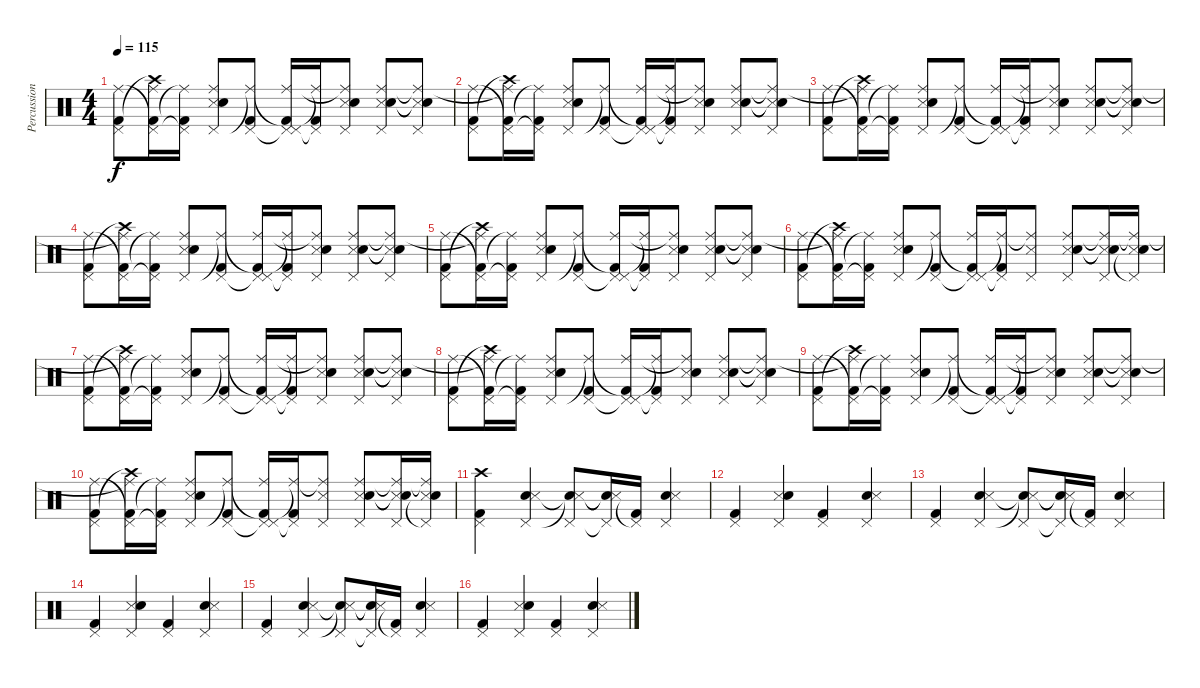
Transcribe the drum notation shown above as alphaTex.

\track ("Percussioni" "Percussion") {instrument percussion}
\staff {score}
\articulation defaults
\ts (4 4)
\tempo 115
\clef neutral
\ks c
("Pedal Hi-Hat (hit)" "Kick (hit) 2" "Ride (middle)").8{dy f} ("Pedal Hi-Hat (hit)" "Crash high (hit)"{t} "Kick (hit) 2"{t} "Ride (middle)"{t}).16 ("Pedal Hi-Hat (hit)"{t} "Kick (hit) 2" "Ride (middle)"{t}).16 ("Snare (side stick) 3" "Electric Snare (hit)" "Pedal Hi-Hat (hit)" "Ride (middle)").8 ("Pedal Hi-Hat (hit)" "Kick (hit) 2" "Ride (middle)"{t}).8 ("Pedal Hi-Hat (hit)"{t} "Pedal Hi-Hat (hit)" "Kick (hit) 2"{t} "Ride (middle)").16 ("Pedal Hi-Hat (hit)"{t} "Kick (hit) 2" "Ride (middle)"{t}).16 ("Snare (side stick) 3" "Pedal Hi-Hat (hit)" "Electric Snare (hit)" "Ride (middle)"{t}).8 ("Snare (side stick) 3" "Electric Snare (hit)" "Pedal Hi-Hat (hit)" "Ride (middle)").8 ("Snare (side stick) 3"{t} "Electric Snare (hit)"{t} "Pedal Hi-Hat (hit)" "Ride (middle)"{t}).8 |
("Pedal Hi-Hat (hit)" "Kick (hit) 2" "Ride (middle)").8 ("Pedal Hi-Hat (hit)" "Crash high (hit)"{t} "Kick (hit) 2"{t} "Ride (middle)"{t}).16 ("Pedal Hi-Hat (hit)"{t} "Kick (hit) 2" "Ride (middle)"{t}).16 ("Snare (side stick) 3" "Electric Snare (hit)" "Pedal Hi-Hat (hit)" "Ride (middle)").8 ("Pedal Hi-Hat (hit)" "Kick (hit) 2" "Ride (middle)"{t}).8 ("Pedal Hi-Hat (hit)"{t} "Pedal Hi-Hat (hit)" "Kick (hit) 2"{t} "Ride (middle)").16 ("Pedal Hi-Hat (hit)"{t} "Kick (hit) 2" "Ride (middle)"{t}).16 ("Snare (side stick) 3" "Pedal Hi-Hat (hit)" "Electric Snare (hit)" "Ride (middle)"{t}).8 ("Snare (side stick) 3" "Electric Snare (hit)" "Pedal Hi-Hat (hit)" "Ride (middle)").8 ("Snare (side stick) 3"{t} "Electric Snare (hit)"{t} "Pedal Hi-Hat (hit)" "Ride (middle)"{t}).8 |
("Pedal Hi-Hat (hit)" "Kick (hit) 2" "Ride (middle)").8 ("Pedal Hi-Hat (hit)" "Crash high (hit)"{t} "Kick (hit) 2"{t} "Ride (middle)"{t}).16 ("Pedal Hi-Hat (hit)"{t} "Kick (hit) 2" "Ride (middle)"{t}).16 ("Snare (side stick) 3" "Electric Snare (hit)" "Pedal Hi-Hat (hit)" "Ride (middle)").8 ("Pedal Hi-Hat (hit)" "Kick (hit) 2" "Ride (middle)"{t}).8 ("Pedal Hi-Hat (hit)"{t} "Pedal Hi-Hat (hit)" "Kick (hit) 2"{t} "Ride (middle)").16 ("Pedal Hi-Hat (hit)"{t} "Kick (hit) 2" "Ride (middle)"{t}).16 ("Snare (side stick) 3" "Pedal Hi-Hat (hit)" "Electric Snare (hit)" "Ride (middle)"{t}).8 ("Snare (side stick) 3" "Electric Snare (hit)" "Pedal Hi-Hat (hit)" "Ride (middle)").8 ("Snare (side stick) 3"{t} "Electric Snare (hit)"{t} "Pedal Hi-Hat (hit)" "Ride (middle)"{t}).8 |
("Pedal Hi-Hat (hit)" "Kick (hit) 2" "Ride (middle)").8 ("Pedal Hi-Hat (hit)" "Crash high (hit)"{t} "Kick (hit) 2"{t} "Ride (middle)"{t}).16 ("Pedal Hi-Hat (hit)"{t} "Kick (hit) 2" "Ride (middle)"{t}).16 ("Snare (side stick) 3" "Electric Snare (hit)" "Pedal Hi-Hat (hit)" "Ride (middle)").8 ("Pedal Hi-Hat (hit)" "Kick (hit) 2" "Ride (middle)"{t}).8 ("Pedal Hi-Hat (hit)"{t} "Pedal Hi-Hat (hit)" "Kick (hit) 2"{t} "Ride (middle)").16 ("Pedal Hi-Hat (hit)"{t} "Kick (hit) 2" "Ride (middle)"{t}).16 ("Snare (side stick) 3" "Pedal Hi-Hat (hit)" "Electric Snare (hit)" "Ride (middle)"{t}).8 ("Snare (side stick) 3" "Electric Snare (hit)" "Pedal Hi-Hat (hit)" "Ride (middle)").8 ("Snare (side stick) 3"{t} "Electric Snare (hit)"{t} "Pedal Hi-Hat (hit)" "Ride (middle)"{t}).8 |
("Pedal Hi-Hat (hit)" "Kick (hit) 2" "Ride (middle)").8 ("Pedal Hi-Hat (hit)" "Crash high (hit)"{t} "Kick (hit) 2"{t} "Ride (middle)"{t}).16 ("Pedal Hi-Hat (hit)"{t} "Kick (hit) 2" "Ride (middle)"{t}).16 ("Snare (side stick) 3" "Electric Snare (hit)" "Pedal Hi-Hat (hit)" "Ride (middle)").8 ("Pedal Hi-Hat (hit)" "Kick (hit) 2" "Ride (middle)"{t}).8 ("Pedal Hi-Hat (hit)"{t} "Pedal Hi-Hat (hit)" "Kick (hit) 2"{t} "Ride (middle)").16 ("Pedal Hi-Hat (hit)"{t} "Kick (hit) 2" "Ride (middle)"{t}).16 ("Snare (side stick) 3" "Pedal Hi-Hat (hit)" "Electric Snare (hit)" "Ride (middle)"{t}).8 ("Snare (side stick) 3" "Electric Snare (hit)" "Pedal Hi-Hat (hit)" "Ride (middle)").8 ("Snare (side stick) 3"{t} "Electric Snare (hit)"{t} "Pedal Hi-Hat (hit)" "Ride (middle)"{t}).8 |
("Pedal Hi-Hat (hit)" "Kick (hit) 2" "Ride (middle)").8 ("Pedal Hi-Hat (hit)" "Crash high (hit)"{t} "Kick (hit) 2"{t} "Ride (middle)"{t}).16 ("Pedal Hi-Hat (hit)"{t} "Kick (hit) 2" "Ride (middle)"{t}).16 ("Snare (side stick) 3" "Electric Snare (hit)" "Pedal Hi-Hat (hit)" "Ride (middle)").8 ("Pedal Hi-Hat (hit)" "Kick (hit) 2" "Ride (middle)"{t}).8 ("Pedal Hi-Hat (hit)"{t} "Pedal Hi-Hat (hit)" "Kick (hit) 2"{t} "Ride (middle)").16 ("Pedal Hi-Hat (hit)"{t} "Kick (hit) 2" "Ride (middle)"{t}).16 ("Snare (side stick) 3" "Pedal Hi-Hat (hit)" "Ride (middle)"{t}).8 ("Snare (side stick) 3" "Electric Snare (hit)" "Pedal Hi-Hat (hit)" "Ride (middle)").8 ("Snare (side stick) 3"{t} "Electric Snare (hit)"{t} "Pedal Hi-Hat (hit)" "Ride (middle)"{t}).16 ("Pedal Hi-Hat (hit)"{t} "Snare (side stick) 3" "Electric Snare (hit)" "Ride (middle)"{t}).16 |
("Pedal Hi-Hat (hit)" "Kick (hit) 2" "Ride (middle)").8 ("Pedal Hi-Hat (hit)" "Crash high (hit)"{t} "Kick (hit) 2"{t} "Ride (middle)"{t}).16 ("Pedal Hi-Hat (hit)"{t} "Kick (hit) 2" "Ride (middle)"{t}).16 ("Snare (side stick) 3" "Electric Snare (hit)" "Pedal Hi-Hat (hit)" "Ride (middle)").8 ("Pedal Hi-Hat (hit)" "Kick (hit) 2" "Ride (middle)"{t}).8 ("Pedal Hi-Hat (hit)"{t} "Pedal Hi-Hat (hit)" "Kick (hit) 2"{t} "Ride (middle)").16 ("Pedal Hi-Hat (hit)"{t} "Kick (hit) 2" "Ride (middle)"{t}).16 ("Snare (side stick) 3" "Pedal Hi-Hat (hit)" "Electric Snare (hit)" "Ride (middle)"{t}).8 ("Snare (side stick) 3" "Electric Snare (hit)" "Pedal Hi-Hat (hit)" "Ride (middle)").8 ("Snare (side stick) 3"{t} "Electric Snare (hit)"{t} "Pedal Hi-Hat (hit)" "Ride (middle)"{t}).8 |
("Pedal Hi-Hat (hit)" "Kick (hit) 2" "Ride (middle)").8 ("Pedal Hi-Hat (hit)" "Crash high (hit)"{t} "Kick (hit) 2"{t} "Ride (middle)"{t}).16 ("Pedal Hi-Hat (hit)"{t} "Kick (hit) 2" "Ride (middle)"{t}).16 ("Snare (side stick) 3" "Electric Snare (hit)" "Pedal Hi-Hat (hit)" "Ride (middle)").8 ("Pedal Hi-Hat (hit)" "Kick (hit) 2" "Ride (middle)"{t}).8 ("Pedal Hi-Hat (hit)"{t} "Pedal Hi-Hat (hit)" "Kick (hit) 2"{t} "Ride (middle)").16 ("Pedal Hi-Hat (hit)"{t} "Kick (hit) 2" "Ride (middle)"{t}).16 ("Snare (side stick) 3" "Pedal Hi-Hat (hit)" "Electric Snare (hit)" "Ride (middle)"{t}).8 ("Snare (side stick) 3" "Electric Snare (hit)" "Pedal Hi-Hat (hit)" "Ride (middle)").8 ("Snare (side stick) 3"{t} "Electric Snare (hit)"{t} "Pedal Hi-Hat (hit)" "Ride (middle)"{t}).8 |
("Pedal Hi-Hat (hit)" "Kick (hit) 2" "Ride (middle)").8 ("Pedal Hi-Hat (hit)" "Crash high (hit)"{t} "Kick (hit) 2"{t} "Ride (middle)"{t}).16 ("Pedal Hi-Hat (hit)"{t} "Kick (hit) 2" "Ride (middle)"{t}).16 ("Snare (side stick) 3" "Electric Snare (hit)" "Pedal Hi-Hat (hit)" "Ride (middle)").8 ("Pedal Hi-Hat (hit)" "Kick (hit) 2" "Ride (middle)"{t}).8 ("Pedal Hi-Hat (hit)"{t} "Pedal Hi-Hat (hit)" "Kick (hit) 2"{t} "Ride (middle)").16 ("Pedal Hi-Hat (hit)"{t} "Kick (hit) 2" "Ride (middle)"{t}).16 ("Snare (side stick) 3" "Pedal Hi-Hat (hit)" "Electric Snare (hit)" "Ride (middle)"{t}).8 ("Snare (side stick) 3" "Electric Snare (hit)" "Pedal Hi-Hat (hit)" "Ride (middle)").8 ("Snare (side stick) 3"{t} "Electric Snare (hit)"{t} "Pedal Hi-Hat (hit)" "Ride (middle)"{t}).8 |
("Pedal Hi-Hat (hit)" "Kick (hit) 2" "Ride (middle)").8 ("Pedal Hi-Hat (hit)" "Crash high (hit)"{t} "Kick (hit) 2"{t} "Ride (middle)"{t}).16 ("Pedal Hi-Hat (hit)"{t} "Kick (hit) 2" "Ride (middle)"{t}).16 ("Snare (side stick) 3" "Electric Snare (hit)" "Pedal Hi-Hat (hit)" "Ride (middle)").8 ("Pedal Hi-Hat (hit)" "Kick (hit) 2" "Ride (middle)"{t}).8 ("Pedal Hi-Hat (hit)"{t} "Pedal Hi-Hat (hit)" "Kick (hit) 2"{t} "Ride (middle)").16 ("Pedal Hi-Hat (hit)"{t} "Kick (hit) 2" "Ride (middle)"{t}).16 ("Snare (side stick) 3" "Pedal Hi-Hat (hit)" "Ride (middle)"{t}).8 ("Snare (side stick) 3" "Electric Snare (hit)" "Pedal Hi-Hat (hit)" "Ride (middle)").8 ("Snare (side stick) 3"{t} "Electric Snare (hit)"{t} "Pedal Hi-Hat (hit)" "Ride (middle)"{t}).16 ("Pedal Hi-Hat (hit)"{t} "Snare (side stick) 3" "Electric Snare (hit)" "Ride (middle)"{t}).16 |
("Kick (hit) 2" "Pedal Hi-Hat (hit)" "Crash high (hit)").4 ("Electric Snare (hit)" "Pedal Hi-Hat (hit)" "Snare (side stick) 3").4 ("Pedal Hi-Hat (hit)" "Electric Snare (hit)"{t} "Snare (side stick) 3"{t}).8 ("Pedal Hi-Hat (hit)"{t} "Electric Snare (hit)"{t} "Snare (side stick) 3"{t}).16 ("Kick (hit) 2" "Pedal Hi-Hat (hit)"{t}).16 ("Electric Snare (hit)" "Pedal Hi-Hat (hit)" "Snare (side stick) 3").4 |
("Kick (hit) 2" "Pedal Hi-Hat (hit)").4 ("Snare (side stick) 3" "Pedal Hi-Hat (hit)" "Electric Snare (hit)").4 ("Kick (hit) 2" "Pedal Hi-Hat (hit)").4 ("Electric Snare (hit)" "Pedal Hi-Hat (hit)" "Snare (side stick) 3").4 |
("Kick (hit) 2" "Pedal Hi-Hat (hit)").4 ("Electric Snare (hit)" "Pedal Hi-Hat (hit)" "Snare (side stick) 3").4 ("Pedal Hi-Hat (hit)" "Electric Snare (hit)"{t} "Snare (side stick) 3"{t}).8 ("Pedal Hi-Hat (hit)"{t} "Electric Snare (hit)"{t} "Snare (side stick) 3"{t}).16 ("Kick (hit) 2" "Pedal Hi-Hat (hit)"{t}).16 ("Electric Snare (hit)" "Pedal Hi-Hat (hit)" "Snare (side stick) 3").4 |
("Kick (hit) 2" "Pedal Hi-Hat (hit)").4 ("Snare (side stick) 3" "Pedal Hi-Hat (hit)" "Electric Snare (hit)").4 ("Kick (hit) 2" "Pedal Hi-Hat (hit)").4 ("Electric Snare (hit)" "Pedal Hi-Hat (hit)" "Snare (side stick) 3").4 |
("Kick (hit) 2" "Pedal Hi-Hat (hit)").4 ("Electric Snare (hit)" "Pedal Hi-Hat (hit)" "Snare (side stick) 3").4 ("Pedal Hi-Hat (hit)" "Electric Snare (hit)"{t} "Snare (side stick) 3"{t}).8 ("Pedal Hi-Hat (hit)"{t} "Electric Snare (hit)"{t} "Snare (side stick) 3"{t}).16 ("Kick (hit) 2" "Pedal Hi-Hat (hit)"{t}).16 ("Electric Snare (hit)" "Pedal Hi-Hat (hit)" "Snare (side stick) 3").4 |
("Kick (hit) 2" "Pedal Hi-Hat (hit)").4 ("Snare (side stick) 3" "Pedal Hi-Hat (hit)" "Electric Snare (hit)").4 ("Kick (hit) 2" "Pedal Hi-Hat (hit)").4 ("Electric Snare (hit)" "Pedal Hi-Hat (hit)" "Snare (side stick) 3").4
